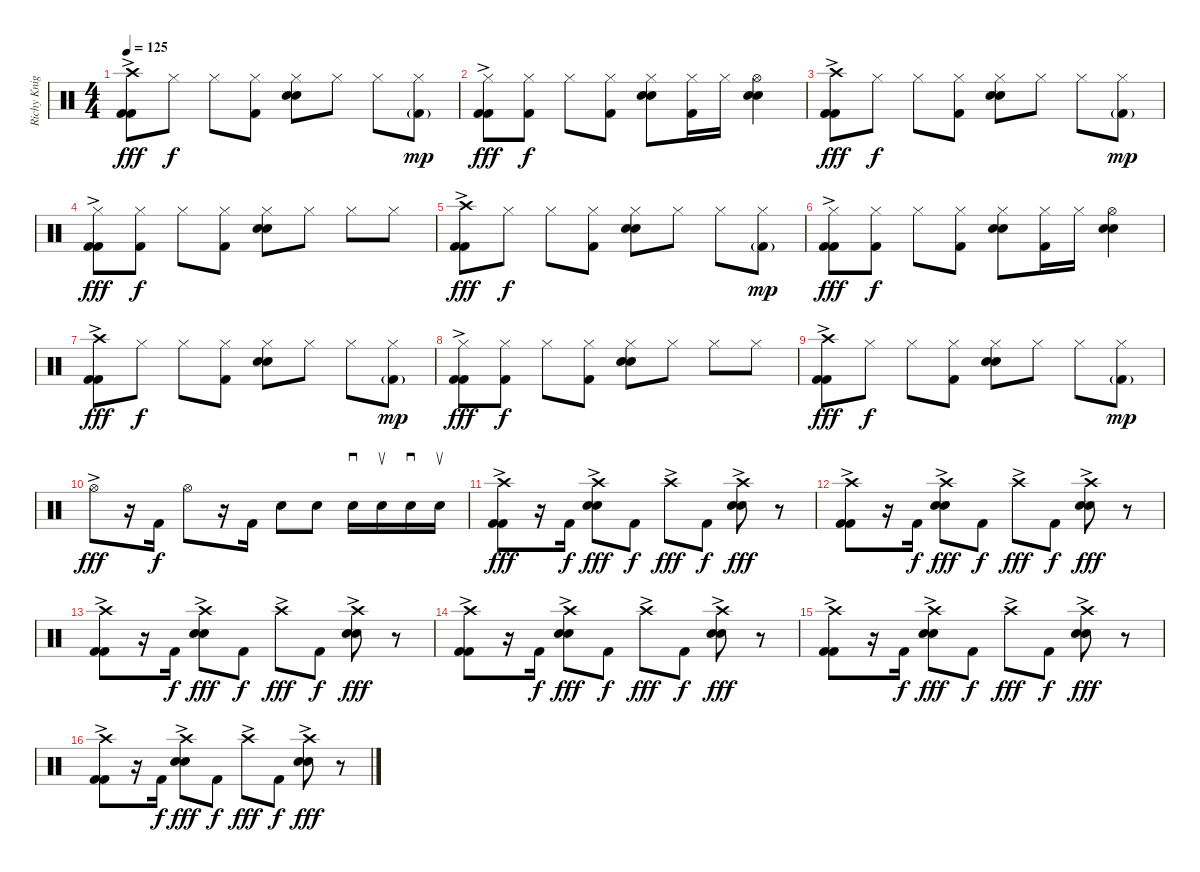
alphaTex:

\track ("Richy Knight" "Richy Knig") {instrument percussion}
\staff {score}
\articulation defaults
\ts (4 4)
\tempo 125
\clef neutral
\ks c
("Crash high (hit)"{ac} "Kick (hit) 2" "Kick (hit) 2").8{dy fff} "Hi-Hat (closed)".8{dy f} "Hi-Hat (closed)".8 ("Hi-Hat (closed)" "Kick (hit) 2").8 ("Hi-Hat (closed)" "Electric Snare (hit)" "Electric Snare (hit)").8 "Hi-Hat (closed)".8 "Hi-Hat (closed)".8 ("Hi-Hat (closed)" "Kick (hit) 2"{g}).8{dy mp} |
("Hi-Hat (closed)"{ac} "Kick (hit) 2" "Kick (hit) 2").8{dy fff} ("Hi-Hat (closed)" "Kick (hit) 2").8{dy f} "Hi-Hat (closed)".8 ("Hi-Hat (closed)" "Kick (hit) 2").8 ("Hi-Hat (closed)" "Electric Snare (hit)" "Electric Snare (hit)").8 ("Hi-Hat (closed)" "Kick (hit) 2").16 "Hi-Hat (closed)".16 ("Hi-Hat (open)" "Electric Snare (hit)" "Electric Snare (hit)").4 |
("Crash high (hit)"{ac} "Kick (hit) 2" "Kick (hit) 2").8{dy fff} "Hi-Hat (closed)".8{dy f} "Hi-Hat (closed)".8 ("Hi-Hat (closed)" "Kick (hit) 2").8 ("Hi-Hat (closed)" "Electric Snare (hit)" "Electric Snare (hit)").8 "Hi-Hat (closed)".8 "Hi-Hat (closed)".8 ("Hi-Hat (closed)" "Kick (hit) 2"{g}).8{dy mp} |
("Hi-Hat (closed)"{ac} "Kick (hit) 2" "Kick (hit) 2").8{dy fff} ("Hi-Hat (closed)" "Kick (hit) 2").8{dy f} "Hi-Hat (closed)".8 ("Hi-Hat (closed)" "Kick (hit) 2").8 ("Hi-Hat (closed)" "Electric Snare (hit)" "Electric Snare (hit)").8 "Hi-Hat (closed)".8 "Hi-Hat (closed)".8 "Hi-Hat (closed)".8 |
("Crash high (hit)"{ac} "Kick (hit) 2" "Kick (hit) 2").8{dy fff} "Hi-Hat (closed)".8{dy f} "Hi-Hat (closed)".8 ("Hi-Hat (closed)" "Kick (hit) 2").8 ("Hi-Hat (closed)" "Electric Snare (hit)" "Electric Snare (hit)").8 "Hi-Hat (closed)".8 "Hi-Hat (closed)".8 ("Hi-Hat (closed)" "Kick (hit) 2"{g}).8{dy mp} |
("Hi-Hat (closed)"{ac} "Kick (hit) 2" "Kick (hit) 2").8{dy fff} ("Hi-Hat (closed)" "Kick (hit) 2").8{dy f} "Hi-Hat (closed)".8 ("Hi-Hat (closed)" "Kick (hit) 2").8 ("Hi-Hat (closed)" "Electric Snare (hit)" "Electric Snare (hit)").8 ("Hi-Hat (closed)" "Kick (hit) 2").16 "Hi-Hat (closed)".16 ("Hi-Hat (open)" "Electric Snare (hit)" "Electric Snare (hit)").4 |
("Crash high (hit)"{ac} "Kick (hit) 2" "Kick (hit) 2").8{dy fff} "Hi-Hat (closed)".8{dy f} "Hi-Hat (closed)".8 ("Hi-Hat (closed)" "Kick (hit) 2").8 ("Hi-Hat (closed)" "Electric Snare (hit)" "Electric Snare (hit)").8 "Hi-Hat (closed)".8 "Hi-Hat (closed)".8 ("Hi-Hat (closed)" "Kick (hit) 2"{g}).8{dy mp} |
("Hi-Hat (closed)"{ac} "Kick (hit) 2" "Kick (hit) 2").8{dy fff} ("Hi-Hat (closed)" "Kick (hit) 2").8{dy f} "Hi-Hat (closed)".8 ("Hi-Hat (closed)" "Kick (hit) 2").8 ("Hi-Hat (closed)" "Electric Snare (hit)" "Electric Snare (hit)").8 "Hi-Hat (closed)".8 "Hi-Hat (closed)".8 "Hi-Hat (closed)".8 |
("Crash high (hit)"{ac} "Kick (hit) 2" "Kick (hit) 2").8{dy fff} "Hi-Hat (closed)".8{dy f} "Hi-Hat (closed)".8 ("Hi-Hat (closed)" "Kick (hit) 2").8 ("Hi-Hat (closed)" "Electric Snare (hit)" "Electric Snare (hit)").8 "Hi-Hat (closed)".8 "Hi-Hat (closed)".8 ("Hi-Hat (closed)" "Kick (hit) 2"{g}).8{dy mp} |
"Hi-Hat (open)"{ac}.8{dy fff} r.16 "Kick (hit) 2".16{dy f} "Hi-Hat (open)".8 r.16 "Kick (hit) 2".16 "Electric Snare (hit)".8 "Electric Snare (hit)".8 "Electric Snare (hit)".16{sd} "Electric Snare (hit)".16{su} "Electric Snare (hit)".16{sd} "Electric Snare (hit)".16{su} |
("Crash high (hit)"{ac} "Kick (hit) 2"{ac} "Kick (hit) 2"{ac}).8{dy fff} r.16 "Kick (hit) 2".16{dy f} ("Crash high (hit)"{ac} "Electric Snare (hit)"{ac} "Electric Snare (hit)"{ac}).8{dy fff} "Kick (hit) 2".8{dy f} "Crash high (hit)"{ac}.8{dy fff} "Kick (hit) 2".8{dy f} ("Crash high (hit)"{ac} "Electric Snare (hit)"{ac} "Electric Snare (hit)"{ac}).8{dy fff} r.8 |
("Crash high (hit)"{ac} "Kick (hit) 2"{ac} "Kick (hit) 2"{ac}).8 r.16 "Kick (hit) 2".16{dy f} ("Crash high (hit)"{ac} "Electric Snare (hit)"{ac} "Electric Snare (hit)"{ac}).8{dy fff} "Kick (hit) 2".8{dy f} "Crash high (hit)"{ac}.8{dy fff} "Kick (hit) 2".8{dy f} ("Crash high (hit)"{ac} "Electric Snare (hit)"{ac} "Electric Snare (hit)"{ac}).8{dy fff} r.8 |
("Crash high (hit)"{ac} "Kick (hit) 2"{ac} "Kick (hit) 2"{ac}).8 r.16 "Kick (hit) 2".16{dy f} ("Crash high (hit)"{ac} "Electric Snare (hit)"{ac} "Electric Snare (hit)"{ac}).8{dy fff} "Kick (hit) 2".8{dy f} "Crash high (hit)"{ac}.8{dy fff} "Kick (hit) 2".8{dy f} ("Crash high (hit)"{ac} "Electric Snare (hit)"{ac} "Electric Snare (hit)"{ac}).8{dy fff} r.8 |
("Crash high (hit)"{ac} "Kick (hit) 2"{ac} "Kick (hit) 2"{ac}).8 r.16 "Kick (hit) 2".16{dy f} ("Crash high (hit)"{ac} "Electric Snare (hit)"{ac} "Electric Snare (hit)"{ac}).8{dy fff} "Kick (hit) 2".8{dy f} "Crash high (hit)"{ac}.8{dy fff} "Kick (hit) 2".8{dy f} ("Crash high (hit)"{ac} "Electric Snare (hit)"{ac} "Electric Snare (hit)"{ac}).8{dy fff} r.8 |
("Crash high (hit)"{ac} "Kick (hit) 2"{ac} "Kick (hit) 2"{ac}).8 r.16 "Kick (hit) 2".16{dy f} ("Crash high (hit)"{ac} "Electric Snare (hit)"{ac} "Electric Snare (hit)"{ac}).8{dy fff} "Kick (hit) 2".8{dy f} "Crash high (hit)"{ac}.8{dy fff} "Kick (hit) 2".8{dy f} ("Crash high (hit)"{ac} "Electric Snare (hit)"{ac} "Electric Snare (hit)"{ac}).8{dy fff} r.8 |
("Crash high (hit)"{ac} "Kick (hit) 2"{ac} "Kick (hit) 2"{ac}).8 r.16 "Kick (hit) 2".16{dy f} ("Crash high (hit)"{ac} "Electric Snare (hit)"{ac} "Electric Snare (hit)"{ac}).8{dy fff} "Kick (hit) 2".8{dy f} "Crash high (hit)"{ac}.8{dy fff} "Kick (hit) 2".8{dy f} ("Crash high (hit)"{ac} "Electric Snare (hit)"{ac} "Electric Snare (hit)"{ac}).8{dy fff} r.8
